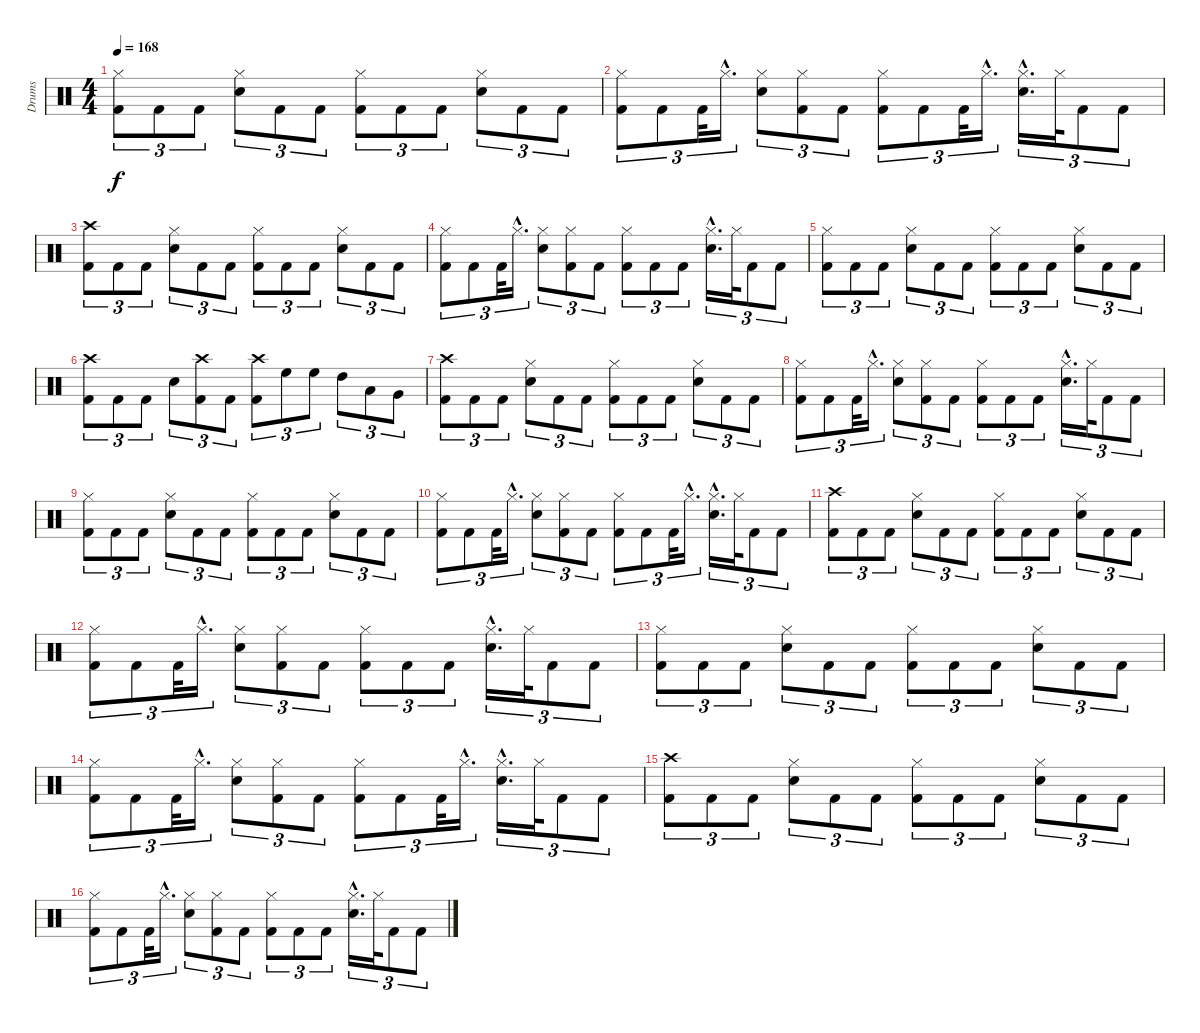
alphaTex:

\track ("Drums" "Drums") {instrument percussion}
\staff {score}
\articulation defaults
\ts (4 4)
\tempo 168
\clef neutral
\ks c
("Kick (hit) 2" "Hi-Hat (closed)").8{tu (3 2) dy f} "Kick (hit) 2".8{tu (3 2)} "Kick (hit) 2".8{tu (3 2)} ("Electric Snare (hit)" "Hi-Hat (closed)").8{tu (3 2)} "Kick (hit) 2".8{tu (3 2)} "Kick (hit) 2".8{tu (3 2)} ("Kick (hit) 2" "Hi-Hat (closed)").8{tu (3 2)} "Kick (hit) 2".8{tu (3 2)} "Kick (hit) 2".8{tu (3 2)} ("Electric Snare (hit)" "Hi-Hat (closed)").8{tu (3 2)} "Kick (hit) 2".8{tu (3 2)} "Kick (hit) 2".8{tu (3 2)} |
("Kick (hit) 2" "Hi-Hat (closed)").8{tu (3 2)} "Kick (hit) 2".8{tu (3 2)} "Kick (hit) 2".32{tu (3 2)} "Hi-Hat (closed)"{hac}.16{d tu (3 2)} ("Electric Snare (hit)" "Hi-Hat (closed)").8{tu (3 2)} ("Kick (hit) 2" "Hi-Hat (closed)").8{tu (3 2)} "Kick (hit) 2".8{tu (3 2)} ("Kick (hit) 2" "Hi-Hat (closed)").8{tu (3 2)} "Kick (hit) 2".8{tu (3 2)} "Kick (hit) 2".32{tu (3 2)} "Hi-Hat (closed)"{hac}.16{d tu (3 2)} ("Electric Snare (hit)"{hac} "Hi-Hat (closed)"{hac}).16{d tu (3 2)} "Hi-Hat (closed)".32{tu (3 2)} "Kick (hit) 2".8{tu (3 2)} "Kick (hit) 2".8{tu (3 2)} |
("Kick (hit) 2" "Crash high (hit)").8{tu (3 2)} "Kick (hit) 2".8{tu (3 2)} "Kick (hit) 2".8{tu (3 2)} ("Hi-Hat (closed)" "Electric Snare (hit)").8{tu (3 2)} "Kick (hit) 2".8{tu (3 2)} "Kick (hit) 2".8{tu (3 2)} ("Kick (hit) 2" "Hi-Hat (closed)").8{tu (3 2)} "Kick (hit) 2".8{tu (3 2)} "Kick (hit) 2".8{tu (3 2)} ("Hi-Hat (closed)" "Electric Snare (hit)").8{tu (3 2)} "Kick (hit) 2".8{tu (3 2)} "Kick (hit) 2".8{tu (3 2)} |
("Kick (hit) 2" "Hi-Hat (closed)").8{tu (3 2)} "Kick (hit) 2".8{tu (3 2)} "Kick (hit) 2".32{tu (3 2)} "Hi-Hat (closed)"{hac}.16{d tu (3 2)} ("Electric Snare (hit)" "Hi-Hat (closed)").8{tu (3 2)} ("Kick (hit) 2" "Hi-Hat (closed)").8{tu (3 2)} "Kick (hit) 2".8{tu (3 2)} ("Kick (hit) 2" "Hi-Hat (closed)").8{tu (3 2)} "Kick (hit) 2".8{tu (3 2)} "Kick (hit) 2".8{tu (3 2)} ("Electric Snare (hit)"{hac} "Hi-Hat (closed)"{hac}).16{d tu (3 2)} "Hi-Hat (closed)".32{tu (3 2)} "Kick (hit) 2".8{tu (3 2)} "Kick (hit) 2".8{tu (3 2)} |
("Kick (hit) 2" "Hi-Hat (closed)").8{tu (3 2)} "Kick (hit) 2".8{tu (3 2)} "Kick (hit) 2".8{tu (3 2)} ("Electric Snare (hit)" "Hi-Hat (closed)").8{tu (3 2)} "Kick (hit) 2".8{tu (3 2)} "Kick (hit) 2".8{tu (3 2)} ("Kick (hit) 2" "Hi-Hat (closed)").8{tu (3 2)} "Kick (hit) 2".8{tu (3 2)} "Kick (hit) 2".8{tu (3 2)} ("Electric Snare (hit)" "Hi-Hat (closed)").8{tu (3 2)} "Kick (hit) 2".8{tu (3 2)} "Kick (hit) 2".8{tu (3 2)} |
("Kick (hit) 2" "Crash high (hit)").8{tu (3 2)} "Kick (hit) 2".8{tu (3 2)} "Kick (hit) 2".8{tu (3 2)} "Electric Snare (hit)".8{tu (3 2)} ("Kick (hit) 2" "Crash high (hit)").8{tu (3 2) balance 5} "Kick (hit) 2".8{tu (3 2) balance 8} ("Kick (hit) 2" "Crash high (hit)").8{tu (3 2) balance 5} "High Floor Tom (hit)".8{tu (3 2) balance 4} "High Floor Tom (hit)".8{tu (3 2)} "High Tom (hit)".8{tu (3 2) balance 8} "Low Tom (hit)".8{tu (3 2) balance 12} "Very Low Tom (hit)".8{tu (3 2) balance 13} |
("Kick (hit) 2" "Crash high (hit)").8{tu (3 2) balance 8} "Kick (hit) 2".8{tu (3 2)} "Kick (hit) 2".8{tu (3 2)} ("Hi-Hat (closed)" "Electric Snare (hit)").8{tu (3 2)} "Kick (hit) 2".8{tu (3 2)} "Kick (hit) 2".8{tu (3 2)} ("Kick (hit) 2" "Hi-Hat (closed)").8{tu (3 2)} "Kick (hit) 2".8{tu (3 2)} "Kick (hit) 2".8{tu (3 2)} ("Hi-Hat (closed)" "Electric Snare (hit)").8{tu (3 2)} "Kick (hit) 2".8{tu (3 2)} "Kick (hit) 2".8{tu (3 2)} |
("Kick (hit) 2" "Hi-Hat (closed)").8{tu (3 2)} "Kick (hit) 2".8{tu (3 2)} "Kick (hit) 2".32{tu (3 2)} "Hi-Hat (closed)"{hac}.16{d tu (3 2)} ("Electric Snare (hit)" "Hi-Hat (closed)").8{tu (3 2)} ("Kick (hit) 2" "Hi-Hat (closed)").8{tu (3 2)} "Kick (hit) 2".8{tu (3 2)} ("Kick (hit) 2" "Hi-Hat (closed)").8{tu (3 2)} "Kick (hit) 2".8{tu (3 2)} "Kick (hit) 2".8{tu (3 2)} ("Electric Snare (hit)"{hac} "Hi-Hat (closed)"{hac}).16{d tu (3 2)} "Hi-Hat (closed)".32{tu (3 2)} "Kick (hit) 2".8{tu (3 2)} "Kick (hit) 2".8{tu (3 2)} |
("Kick (hit) 2" "Hi-Hat (closed)").8{tu (3 2)} "Kick (hit) 2".8{tu (3 2)} "Kick (hit) 2".8{tu (3 2)} ("Electric Snare (hit)" "Hi-Hat (closed)").8{tu (3 2)} "Kick (hit) 2".8{tu (3 2)} "Kick (hit) 2".8{tu (3 2)} ("Kick (hit) 2" "Hi-Hat (closed)").8{tu (3 2)} "Kick (hit) 2".8{tu (3 2)} "Kick (hit) 2".8{tu (3 2)} ("Electric Snare (hit)" "Hi-Hat (closed)").8{tu (3 2)} "Kick (hit) 2".8{tu (3 2)} "Kick (hit) 2".8{tu (3 2)} |
("Kick (hit) 2" "Hi-Hat (closed)").8{tu (3 2)} "Kick (hit) 2".8{tu (3 2)} "Kick (hit) 2".32{tu (3 2)} "Hi-Hat (closed)"{hac}.16{d tu (3 2)} ("Electric Snare (hit)" "Hi-Hat (closed)").8{tu (3 2)} ("Kick (hit) 2" "Hi-Hat (closed)").8{tu (3 2)} "Kick (hit) 2".8{tu (3 2)} ("Kick (hit) 2" "Hi-Hat (closed)").8{tu (3 2)} "Kick (hit) 2".8{tu (3 2)} "Kick (hit) 2".32{tu (3 2)} "Hi-Hat (closed)"{hac}.16{d tu (3 2)} ("Electric Snare (hit)"{hac} "Hi-Hat (closed)"{hac}).16{d tu (3 2)} "Hi-Hat (closed)".32{tu (3 2)} "Kick (hit) 2".8{tu (3 2)} "Kick (hit) 2".8{tu (3 2)} |
("Kick (hit) 2" "Crash high (hit)").8{tu (3 2) balance 8} "Kick (hit) 2".8{tu (3 2)} "Kick (hit) 2".8{tu (3 2)} ("Hi-Hat (closed)" "Electric Snare (hit)").8{tu (3 2)} "Kick (hit) 2".8{tu (3 2)} "Kick (hit) 2".8{tu (3 2)} ("Kick (hit) 2" "Hi-Hat (closed)").8{tu (3 2)} "Kick (hit) 2".8{tu (3 2)} "Kick (hit) 2".8{tu (3 2)} ("Hi-Hat (closed)" "Electric Snare (hit)").8{tu (3 2)} "Kick (hit) 2".8{tu (3 2)} "Kick (hit) 2".8{tu (3 2)} |
("Kick (hit) 2" "Hi-Hat (closed)").8{tu (3 2)} "Kick (hit) 2".8{tu (3 2)} "Kick (hit) 2".32{tu (3 2)} "Hi-Hat (closed)"{hac}.16{d tu (3 2)} ("Electric Snare (hit)" "Hi-Hat (closed)").8{tu (3 2)} ("Kick (hit) 2" "Hi-Hat (closed)").8{tu (3 2)} "Kick (hit) 2".8{tu (3 2)} ("Kick (hit) 2" "Hi-Hat (closed)").8{tu (3 2)} "Kick (hit) 2".8{tu (3 2)} "Kick (hit) 2".8{tu (3 2)} ("Electric Snare (hit)"{hac} "Hi-Hat (closed)"{hac}).16{d tu (3 2)} "Hi-Hat (closed)".32{tu (3 2)} "Kick (hit) 2".8{tu (3 2)} "Kick (hit) 2".8{tu (3 2)} |
("Kick (hit) 2" "Hi-Hat (closed)").8{tu (3 2)} "Kick (hit) 2".8{tu (3 2)} "Kick (hit) 2".8{tu (3 2)} ("Electric Snare (hit)" "Hi-Hat (closed)").8{tu (3 2)} "Kick (hit) 2".8{tu (3 2)} "Kick (hit) 2".8{tu (3 2)} ("Kick (hit) 2" "Hi-Hat (closed)").8{tu (3 2)} "Kick (hit) 2".8{tu (3 2)} "Kick (hit) 2".8{tu (3 2)} ("Electric Snare (hit)" "Hi-Hat (closed)").8{tu (3 2)} "Kick (hit) 2".8{tu (3 2)} "Kick (hit) 2".8{tu (3 2)} |
("Kick (hit) 2" "Hi-Hat (closed)").8{tu (3 2)} "Kick (hit) 2".8{tu (3 2)} "Kick (hit) 2".32{tu (3 2)} "Hi-Hat (closed)"{hac}.16{d tu (3 2)} ("Electric Snare (hit)" "Hi-Hat (closed)").8{tu (3 2)} ("Kick (hit) 2" "Hi-Hat (closed)").8{tu (3 2)} "Kick (hit) 2".8{tu (3 2)} ("Kick (hit) 2" "Hi-Hat (closed)").8{tu (3 2)} "Kick (hit) 2".8{tu (3 2)} "Kick (hit) 2".32{tu (3 2)} "Hi-Hat (closed)"{hac}.16{d tu (3 2)} ("Electric Snare (hit)"{hac} "Hi-Hat (closed)"{hac}).16{d tu (3 2)} "Hi-Hat (closed)".32{tu (3 2)} "Kick (hit) 2".8{tu (3 2)} "Kick (hit) 2".8{tu (3 2)} |
("Kick (hit) 2" "Crash high (hit)").8{tu (3 2) balance 8} "Kick (hit) 2".8{tu (3 2)} "Kick (hit) 2".8{tu (3 2)} ("Hi-Hat (closed)" "Electric Snare (hit)").8{tu (3 2)} "Kick (hit) 2".8{tu (3 2)} "Kick (hit) 2".8{tu (3 2)} ("Kick (hit) 2" "Hi-Hat (closed)").8{tu (3 2)} "Kick (hit) 2".8{tu (3 2)} "Kick (hit) 2".8{tu (3 2)} ("Hi-Hat (closed)" "Electric Snare (hit)").8{tu (3 2)} "Kick (hit) 2".8{tu (3 2)} "Kick (hit) 2".8{tu (3 2)} |
("Kick (hit) 2" "Hi-Hat (closed)").8{tu (3 2)} "Kick (hit) 2".8{tu (3 2)} "Kick (hit) 2".32{tu (3 2)} "Hi-Hat (closed)"{hac}.16{d tu (3 2)} ("Electric Snare (hit)" "Hi-Hat (closed)").8{tu (3 2)} ("Kick (hit) 2" "Hi-Hat (closed)").8{tu (3 2)} "Kick (hit) 2".8{tu (3 2)} ("Kick (hit) 2" "Hi-Hat (closed)").8{tu (3 2)} "Kick (hit) 2".8{tu (3 2)} "Kick (hit) 2".8{tu (3 2)} ("Electric Snare (hit)"{hac} "Hi-Hat (closed)"{hac}).16{d tu (3 2)} "Hi-Hat (closed)".32{tu (3 2)} "Kick (hit) 2".8{tu (3 2)} "Kick (hit) 2".8{tu (3 2)}
